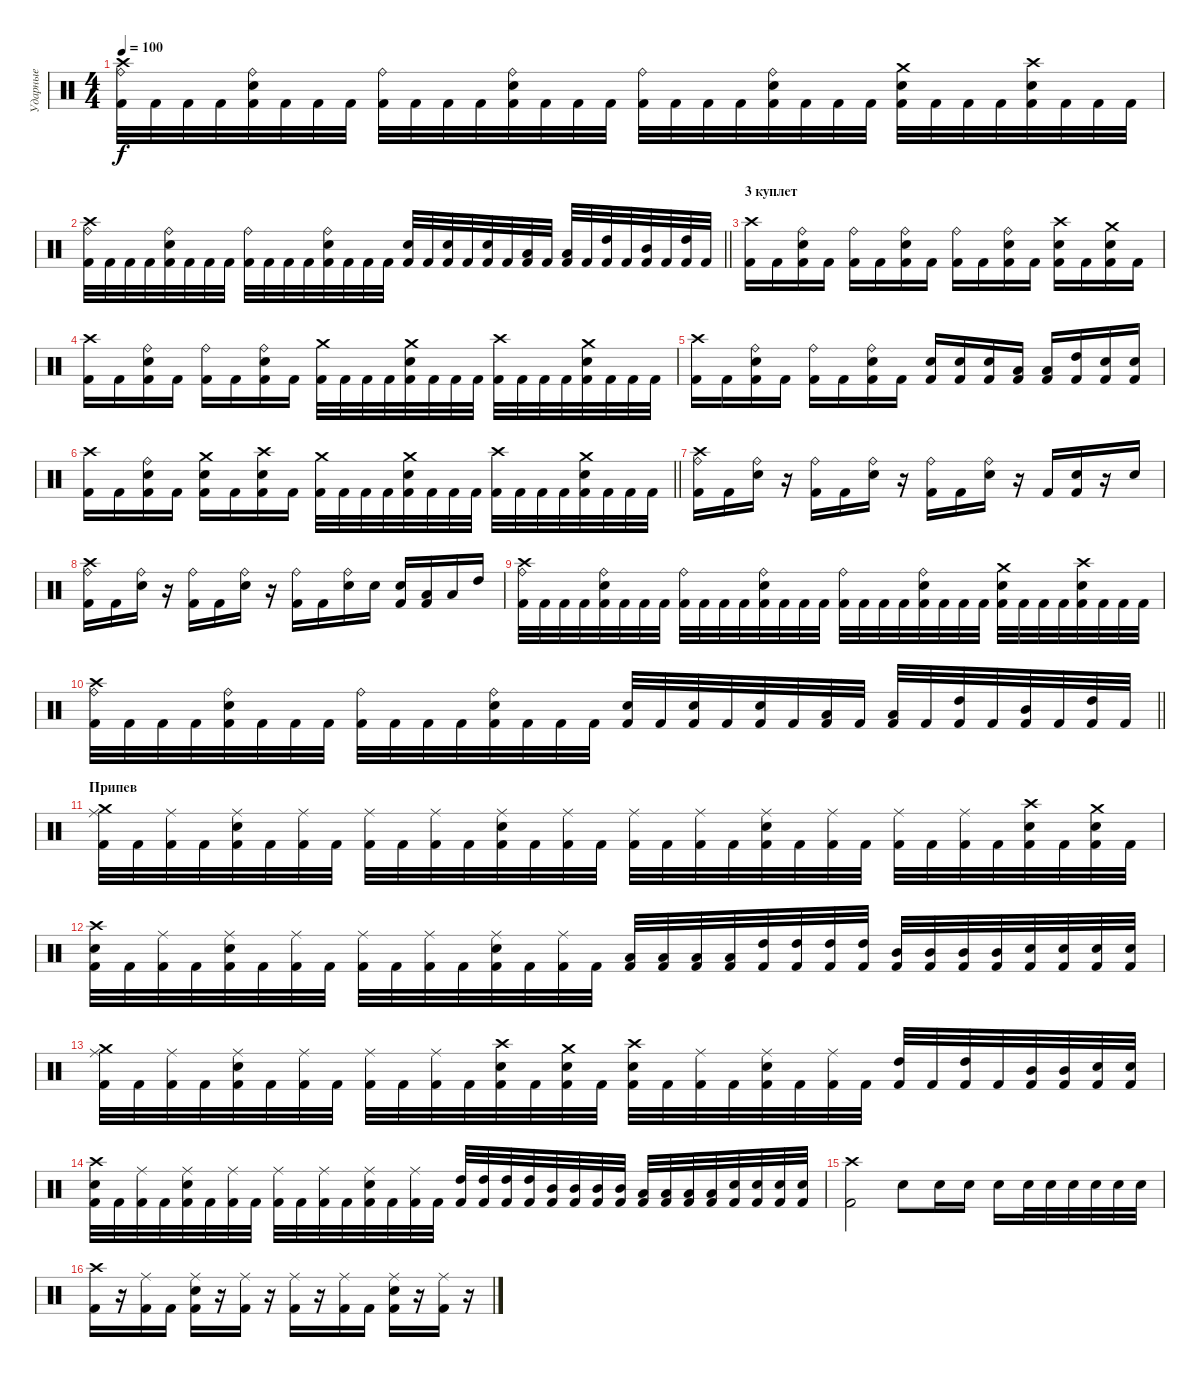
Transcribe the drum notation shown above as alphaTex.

\track ("Ударные" "Ударные") {instrument percussion}
\staff {score}
\articulation defaults
\ts (4 4)
\tempo 100
\clef neutral
\ks c
("Ride (bell)" "Crash high (hit)" "Kick (hit) 2").32{dy f} "Kick (hit) 2".32 "Kick (hit) 2".32 "Kick (hit) 2".32 ("Ride (bell)" "Snare (hit) 2" "Kick (hit) 2").32 "Kick (hit) 2".32 "Kick (hit) 2".32 "Kick (hit) 2".32 ("Ride (bell)" "Kick (hit) 2").32 "Kick (hit) 2".32 "Kick (hit) 2".32 "Kick (hit) 2".32 ("Ride (bell)" "Snare (hit) 2" "Kick (hit) 2").32 "Kick (hit) 2".32 "Kick (hit) 2".32 "Kick (hit) 2".32 ("Ride (bell)" "Kick (hit) 2").32 "Kick (hit) 2".32 "Kick (hit) 2".32 "Kick (hit) 2".32 ("Ride (bell)" "Snare (hit) 2" "Kick (hit) 2").32 "Kick (hit) 2".32 "Kick (hit) 2".32 "Kick (hit) 2".32 ("Crash medium (hit)" "Snare (hit) 2" "Kick (hit) 2").32 "Kick (hit) 2".32 "Kick (hit) 2".32 "Kick (hit) 2".32 ("Crash high (hit)" "Snare (hit) 2" "Kick (hit) 2").32 "Kick (hit) 2".32 "Kick (hit) 2".32 "Kick (hit) 2".32 |
\barLineRight lightlight
("Ride (bell)" "Crash high (hit)" "Kick (hit) 2").32 "Kick (hit) 2".32 "Kick (hit) 2".32 "Kick (hit) 2".32 ("Ride (bell)" "Snare (hit) 2" "Kick (hit) 2").32 "Kick (hit) 2".32 "Kick (hit) 2".32 "Kick (hit) 2".32 ("Ride (bell)" "Kick (hit) 2").32 "Kick (hit) 2".32 "Kick (hit) 2".32 "Kick (hit) 2".32 ("Ride (bell)" "Snare (hit) 2" "Kick (hit) 2").32 "Kick (hit) 2".32 "Kick (hit) 2".32 "Kick (hit) 2".32 ("Snare (hit) 2" "Kick (hit) 2").32 "Kick (hit) 2".32 ("Snare (hit) 2" "Kick (hit) 2").32 "Kick (hit) 2".32 ("Snare (hit) 2" "Kick (hit) 2").32 "Kick (hit) 2".32 ("Low Tom (hit)" "Kick (hit) 2").32 "Kick (hit) 2".32 ("Low Tom (hit)" "Kick (hit) 2").32 "Kick (hit) 2".32 ("High Tom (hit)" "Kick (hit) 2").32 "Kick (hit) 2".32 ("Mid Tom (hit)" "Kick (hit) 2").32 "Kick (hit) 2".32 ("High Tom (hit)" "Kick (hit) 2").32 "Kick (hit) 2".32 |
\section ("" "3 куплет")
("Crash high (hit)" "Kick (hit) 2").16 "Kick (hit) 2".16 ("Ride (bell)" "Snare (hit) 2" "Kick (hit) 2").16 "Kick (hit) 2".16 ("Ride (bell)" "Kick (hit) 2").16 "Kick (hit) 2".16 ("Ride (bell)" "Snare (hit) 2" "Kick (hit) 2").16 "Kick (hit) 2".16 ("Ride (bell)" "Kick (hit) 2").16 "Kick (hit) 2".16 ("Ride (bell)" "Snare (hit) 2" "Kick (hit) 2").16 "Kick (hit) 2".16 ("Crash high (hit)" "Snare (hit) 2" "Kick (hit) 2").16 "Kick (hit) 2".16 ("Crash medium (hit)" "Snare (hit) 2" "Kick (hit) 2").16 "Kick (hit) 2".16 |
("Crash high (hit)" "Kick (hit) 2").16 "Kick (hit) 2".16 ("Ride (bell)" "Snare (hit) 2" "Kick (hit) 2").16 "Kick (hit) 2".16 ("Ride (bell)" "Kick (hit) 2").16 "Kick (hit) 2".16 ("Ride (bell)" "Snare (hit) 2" "Kick (hit) 2").16 "Kick (hit) 2".16 ("Crash medium (hit)" "Kick (hit) 2").32 "Kick (hit) 2".32 "Kick (hit) 2".32 "Kick (hit) 2".32 ("Snare (hit) 2" "Crash medium (hit)" "Kick (hit) 2").32 "Kick (hit) 2".32 "Kick (hit) 2".32 "Kick (hit) 2".32 ("Crash high (hit)" "Kick (hit) 2").32 "Kick (hit) 2".32 "Kick (hit) 2".32 "Kick (hit) 2".32 ("Snare (hit) 2" "Crash medium (hit)" "Kick (hit) 2").32 "Kick (hit) 2".32 "Kick (hit) 2".32 "Kick (hit) 2".32 |
("Crash high (hit)" "Kick (hit) 2").16 "Kick (hit) 2".16 ("Ride (bell)" "Snare (hit) 2" "Kick (hit) 2").16 "Kick (hit) 2".16 ("Ride (bell)" "Kick (hit) 2").16 "Kick (hit) 2".16 ("Ride (bell)" "Snare (hit) 2" "Kick (hit) 2").16 "Kick (hit) 2".16 ("Snare (hit) 2" "Kick (hit) 2").16 ("Snare (hit) 2" "Kick (hit) 2").16 ("Snare (hit) 2" "Kick (hit) 2").16 ("Low Tom (hit)" "Kick (hit) 2").16 ("Low Tom (hit)" "Kick (hit) 2").16 ("High Tom (hit)" "Kick (hit) 2").16 ("Snare (hit) 2" "Kick (hit) 2").16 ("Snare (hit) 2" "Kick (hit) 2").16 |
\barLineRight lightlight
("Crash high (hit)" "Kick (hit) 2").16 "Kick (hit) 2".16 ("Ride (bell)" "Snare (hit) 2" "Kick (hit) 2").16 "Kick (hit) 2".16 ("Crash medium (hit)" "Snare (hit) 2" "Kick (hit) 2").16 "Kick (hit) 2".16 ("Crash high (hit)" "Snare (hit) 2" "Kick (hit) 2").16 "Kick (hit) 2".16 ("Crash medium (hit)" "Kick (hit) 2").32 "Kick (hit) 2".32 "Kick (hit) 2".32 "Kick (hit) 2".32 ("Snare (hit) 2" "Crash medium (hit)" "Kick (hit) 2").32 "Kick (hit) 2".32 "Kick (hit) 2".32 "Kick (hit) 2".32 ("Crash high (hit)" "Kick (hit) 2").32 "Kick (hit) 2".32 "Kick (hit) 2".32 "Kick (hit) 2".32 ("Snare (hit) 2" "Crash medium (hit)" "Kick (hit) 2").32 "Kick (hit) 2".32 "Kick (hit) 2".32 "Kick (hit) 2".32 |
("Ride (bell)" "Crash high (hit)" "Kick (hit) 2").16 "Kick (hit) 2".16 ("Ride (bell)" "Snare (hit) 2").16 r.16 ("Ride (bell)" "Kick (hit) 2").16 "Kick (hit) 2".16 ("Ride (bell)" "Snare (hit) 2").16 r.16 ("Ride (bell)" "Kick (hit) 2").16 "Kick (hit) 2".16 ("Ride (bell)" "Snare (hit) 2").16 r.16 "Kick (hit) 2".16 ("Snare (hit) 2" "Kick (hit) 2").16 r.16 "Snare (hit) 2".16 |
("Ride (bell)" "Crash high (hit)" "Kick (hit) 2").16 "Kick (hit) 2".16 ("Ride (bell)" "Snare (hit) 2").16 r.16 ("Ride (bell)" "Kick (hit) 2").16 "Kick (hit) 2".16 ("Ride (bell)" "Snare (hit) 2").16 r.16 ("Ride (bell)" "Kick (hit) 2").16 "Kick (hit) 2".16 ("Ride (bell)" "Snare (hit) 2").16 "Snare (hit) 2".16 ("Snare (hit) 2" "Kick (hit) 2").16 ("Low Tom (hit)" "Kick (hit) 2").16 "Low Tom (hit)".16 "High Tom (hit)".16 |
("Ride (bell)" "Crash high (hit)" "Kick (hit) 2").32 "Kick (hit) 2".32 "Kick (hit) 2".32 "Kick (hit) 2".32 ("Ride (bell)" "Snare (hit) 2" "Kick (hit) 2").32 "Kick (hit) 2".32 "Kick (hit) 2".32 "Kick (hit) 2".32 ("Ride (bell)" "Kick (hit) 2").32 "Kick (hit) 2".32 "Kick (hit) 2".32 "Kick (hit) 2".32 ("Ride (bell)" "Snare (hit) 2" "Kick (hit) 2").32 "Kick (hit) 2".32 "Kick (hit) 2".32 "Kick (hit) 2".32 ("Ride (bell)" "Kick (hit) 2").32 "Kick (hit) 2".32 "Kick (hit) 2".32 "Kick (hit) 2".32 ("Ride (bell)" "Snare (hit) 2" "Kick (hit) 2").32 "Kick (hit) 2".32 "Kick (hit) 2".32 "Kick (hit) 2".32 ("Crash medium (hit)" "Snare (hit) 2" "Kick (hit) 2").32 "Kick (hit) 2".32 "Kick (hit) 2".32 "Kick (hit) 2".32 ("Crash high (hit)" "Snare (hit) 2" "Kick (hit) 2").32 "Kick (hit) 2".32 "Kick (hit) 2".32 "Kick (hit) 2".32 |
\barLineRight lightlight
("Ride (bell)" "Crash high (hit)" "Kick (hit) 2").32 "Kick (hit) 2".32 "Kick (hit) 2".32 "Kick (hit) 2".32 ("Ride (bell)" "Snare (hit) 2" "Kick (hit) 2").32 "Kick (hit) 2".32 "Kick (hit) 2".32 "Kick (hit) 2".32 ("Ride (bell)" "Kick (hit) 2").32 "Kick (hit) 2".32 "Kick (hit) 2".32 "Kick (hit) 2".32 ("Ride (bell)" "Snare (hit) 2" "Kick (hit) 2").32 "Kick (hit) 2".32 "Kick (hit) 2".32 "Kick (hit) 2".32 ("Snare (hit) 2" "Kick (hit) 2").32 "Kick (hit) 2".32 ("Snare (hit) 2" "Kick (hit) 2").32 "Kick (hit) 2".32 ("Snare (hit) 2" "Kick (hit) 2").32 "Kick (hit) 2".32 ("Low Tom (hit)" "Kick (hit) 2").32 "Kick (hit) 2".32 ("Low Tom (hit)" "Kick (hit) 2").32 "Kick (hit) 2".32 ("High Tom (hit)" "Kick (hit) 2").32 "Kick (hit) 2".32 ("Mid Tom (hit)" "Kick (hit) 2").32 "Kick (hit) 2".32 ("High Tom (hit)" "Kick (hit) 2").32 "Kick (hit) 2".32 |
\section ("" "Припев")
("Ride (middle)" "Crash medium (hit)" "Kick (hit) 2").32 "Kick (hit) 2".32 ("Ride (middle)" "Kick (hit) 2").32 "Kick (hit) 2".32 ("Ride (middle)" "Snare (hit) 2" "Kick (hit) 2").32 "Kick (hit) 2".32 ("Ride (middle)" "Kick (hit) 2").32 "Kick (hit) 2".32 ("Ride (middle)" "Kick (hit) 2").32 "Kick (hit) 2".32 ("Ride (middle)" "Kick (hit) 2").32 "Kick (hit) 2".32 ("Ride (middle)" "Snare (hit) 2" "Kick (hit) 2").32 "Kick (hit) 2".32 ("Ride (middle)" "Kick (hit) 2").32 "Kick (hit) 2".32 ("Ride (middle)" "Kick (hit) 2").32 "Kick (hit) 2".32 ("Ride (middle)" "Kick (hit) 2").32 "Kick (hit) 2".32 ("Ride (middle)" "Snare (hit) 2" "Kick (hit) 2").32 "Kick (hit) 2".32 ("Ride (middle)" "Kick (hit) 2").32 "Kick (hit) 2".32 ("Ride (middle)" "Kick (hit) 2").32 "Kick (hit) 2".32 ("Ride (middle)" "Kick (hit) 2").32 "Kick (hit) 2".32 ("Crash high (hit)" "Snare (hit) 2" "Kick (hit) 2").32 "Kick (hit) 2".32 ("Crash medium (hit)" "Snare (hit) 2" "Kick (hit) 2").32 "Kick (hit) 2".32 |
("Snare (hit) 2" "Crash high (hit)" "Kick (hit) 2").32 "Kick (hit) 2".32 ("Ride (middle)" "Kick (hit) 2").32 "Kick (hit) 2".32 ("Ride (middle)" "Snare (hit) 2" "Kick (hit) 2").32 "Kick (hit) 2".32 ("Ride (middle)" "Kick (hit) 2").32 "Kick (hit) 2".32 ("Ride (middle)" "Kick (hit) 2").32 "Kick (hit) 2".32 ("Ride (middle)" "Kick (hit) 2").32 "Kick (hit) 2".32 ("Ride (middle)" "Snare (hit) 2" "Kick (hit) 2").32 "Kick (hit) 2".32 ("Ride (middle)" "Kick (hit) 2").32 "Kick (hit) 2".32 ("Low Tom (hit)" "Kick (hit) 2").32 ("Low Tom (hit)" "Kick (hit) 2").32 ("Low Tom (hit)" "Kick (hit) 2").32 ("Low Tom (hit)" "Kick (hit) 2").32 ("High Tom (hit)" "Kick (hit) 2").32 ("High Tom (hit)" "Kick (hit) 2").32 ("High Tom (hit)" "Kick (hit) 2").32 ("High Tom (hit)" "Kick (hit) 2").32 ("Mid Tom (hit)" "Kick (hit) 2").32 ("Mid Tom (hit)" "Kick (hit) 2").32 ("Mid Tom (hit)" "Kick (hit) 2").32 ("Mid Tom (hit)" "Kick (hit) 2").32 ("Snare (hit) 2" "Kick (hit) 2").32 ("Snare (hit) 2" "Kick (hit) 2").32 ("Snare (hit) 2" "Kick (hit) 2").32 ("Snare (hit) 2" "Kick (hit) 2").32 |
("Ride (middle)" "Crash medium (hit)" "Kick (hit) 2").32 "Kick (hit) 2".32 ("Ride (middle)" "Kick (hit) 2").32 "Kick (hit) 2".32 ("Ride (middle)" "Snare (hit) 2" "Kick (hit) 2").32 "Kick (hit) 2".32 ("Ride (middle)" "Kick (hit) 2").32 "Kick (hit) 2".32 ("Ride (middle)" "Kick (hit) 2").32 "Kick (hit) 2".32 ("Ride (middle)" "Kick (hit) 2").32 "Kick (hit) 2".32 ("Crash high (hit)" "Snare (hit) 2" "Kick (hit) 2").32 "Kick (hit) 2".32 ("Crash medium (hit)" "Snare (hit) 2" "Kick (hit) 2").32 "Kick (hit) 2".32 ("Crash high (hit)" "Snare (hit) 2" "Kick (hit) 2").32 "Kick (hit) 2".32 ("Ride (middle)" "Kick (hit) 2").32 "Kick (hit) 2".32 ("Ride (middle)" "Snare (hit) 2" "Kick (hit) 2").32 "Kick (hit) 2".32 ("Ride (middle)" "Kick (hit) 2").32 "Kick (hit) 2".32 ("High Tom (hit)" "Kick (hit) 2").32 "Kick (hit) 2".32 ("High Tom (hit)" "Kick (hit) 2").32 "Kick (hit) 2".32 ("Mid Tom (hit)" "Kick (hit) 2").32 ("Mid Tom (hit)" "Kick (hit) 2").32 ("Snare (hit) 2" "Kick (hit) 2").32 ("Snare (hit) 2" "Kick (hit) 2").32 |
("Snare (hit) 2" "Crash high (hit)" "Kick (hit) 2").32 "Kick (hit) 2".32 ("Ride (middle)" "Kick (hit) 2").32 "Kick (hit) 2".32 ("Ride (middle)" "Snare (hit) 2" "Kick (hit) 2").32 "Kick (hit) 2".32 ("Ride (middle)" "Kick (hit) 2").32 "Kick (hit) 2".32 ("Ride (middle)" "Kick (hit) 2").32 "Kick (hit) 2".32 ("Ride (middle)" "Kick (hit) 2").32 "Kick (hit) 2".32 ("Ride (middle)" "Snare (hit) 2" "Kick (hit) 2").32 "Kick (hit) 2".32 ("Ride (middle)" "Kick (hit) 2").32 "Kick (hit) 2".32 ("High Tom (hit)" "Kick (hit) 2").32 ("High Tom (hit)" "Kick (hit) 2").32 ("High Tom (hit)" "Kick (hit) 2").32 ("High Tom (hit)" "Kick (hit) 2").32 ("Mid Tom (hit)" "Kick (hit) 2").32 ("Mid Tom (hit)" "Kick (hit) 2").32 ("Mid Tom (hit)" "Kick (hit) 2").32 ("Mid Tom (hit)" "Kick (hit) 2").32 ("Low Tom (hit)" "Kick (hit) 2").32 ("Low Tom (hit)" "Kick (hit) 2").32 ("Low Tom (hit)" "Kick (hit) 2").32 ("Low Tom (hit)" "Kick (hit) 2").32 ("Snare (hit) 2" "Kick (hit) 2").32 ("Snare (hit) 2" "Kick (hit) 2").32 ("Snare (hit) 2" "Kick (hit) 2").32 ("Snare (hit) 2" "Kick (hit) 2").32 |
("Crash high (hit)" "Kick (hit) 2").2 "Snare (hit) 2".8 "Snare (hit) 2".16 "Snare (hit) 2".16 "Snare (hit) 2".16 "Snare (hit) 2".32 "Snare (hit) 2".32 "Snare (hit) 2".32 "Snare (hit) 2".32 "Snare (hit) 2".32 "Snare (hit) 2".32 |
("Crash high (hit)" "Kick (hit) 2").16 r.16 ("Ride (middle)" "Kick (hit) 2").16 "Kick (hit) 2".16 ("Ride (middle)" "Snare (hit) 2" "Kick (hit) 2").16 r.16 ("Ride (middle)" "Kick (hit) 2").16 r.16 ("Ride (middle)" "Kick (hit) 2").16 r.16 ("Ride (middle)" "Kick (hit) 2").16 "Kick (hit) 2".16 ("Ride (middle)" "Snare (hit) 2" "Kick (hit) 2").16 r.16 ("Ride (middle)" "Kick (hit) 2").16 r.16
